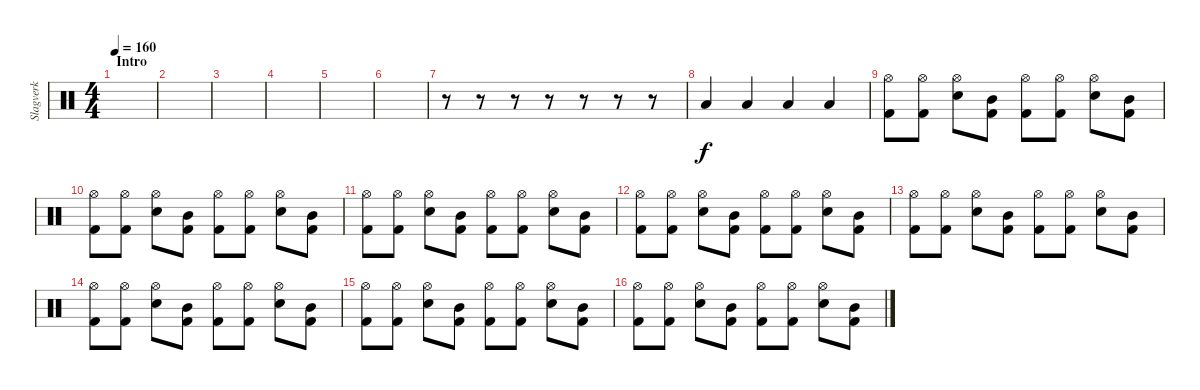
\track ("Slagverk" "Slagverk") {instrument percussion}
\staff {score}
\articulation defaults
\ts (4 4)
\section ("" "Intro")
\tempo 160
\clef neutral
\ks c
|
|
|
|
|
|
r.8 r.8 r.8 r.8 r.8 r.8 r.8 |
"Low Tom (hit)".4 "Low Tom (hit)".4 "Low Tom (hit)".4 "Low Tom (hit)".4 |
("Hi-Hat (open)" "Kick (hit) 2").8 ("Hi-Hat (open)" "Kick (hit) 2").8 ("Hi-Hat (open)" "Electric Snare (hit)").8 ("Mid Tom (hit)" "Kick (hit) 2").8 ("Hi-Hat (open)" "Kick (hit) 2").8 ("Hi-Hat (open)" "Kick (hit) 2").8 ("Hi-Hat (open)" "Electric Snare (hit)").8 ("Mid Tom (hit)" "Kick (hit) 2").8 |
("Hi-Hat (open)" "Kick (hit) 2").8 ("Hi-Hat (open)" "Kick (hit) 2").8 ("Hi-Hat (open)" "Electric Snare (hit)").8 ("Mid Tom (hit)" "Kick (hit) 2").8 ("Hi-Hat (open)" "Kick (hit) 2").8 ("Hi-Hat (open)" "Kick (hit) 2").8 ("Hi-Hat (open)" "Electric Snare (hit)").8 ("Mid Tom (hit)" "Kick (hit) 2").8 |
("Hi-Hat (open)" "Kick (hit) 2").8 ("Hi-Hat (open)" "Kick (hit) 2").8 ("Hi-Hat (open)" "Electric Snare (hit)").8 ("Mid Tom (hit)" "Kick (hit) 2").8 ("Hi-Hat (open)" "Kick (hit) 2").8 ("Hi-Hat (open)" "Kick (hit) 2").8 ("Hi-Hat (open)" "Electric Snare (hit)").8 ("Mid Tom (hit)" "Kick (hit) 2").8 |
("Hi-Hat (open)" "Kick (hit) 2").8 ("Hi-Hat (open)" "Kick (hit) 2").8 ("Hi-Hat (open)" "Electric Snare (hit)").8 ("Mid Tom (hit)" "Kick (hit) 2").8 ("Hi-Hat (open)" "Kick (hit) 2").8 ("Hi-Hat (open)" "Kick (hit) 2").8 ("Hi-Hat (open)" "Electric Snare (hit)").8 ("Mid Tom (hit)" "Kick (hit) 2").8 |
("Hi-Hat (open)" "Kick (hit) 2").8 ("Hi-Hat (open)" "Kick (hit) 2").8 ("Hi-Hat (open)" "Electric Snare (hit)").8 ("Mid Tom (hit)" "Kick (hit) 2").8 ("Hi-Hat (open)" "Kick (hit) 2").8 ("Hi-Hat (open)" "Kick (hit) 2").8 ("Hi-Hat (open)" "Electric Snare (hit)").8 ("Mid Tom (hit)" "Kick (hit) 2").8 |
("Hi-Hat (open)" "Kick (hit) 2").8 ("Hi-Hat (open)" "Kick (hit) 2").8 ("Hi-Hat (open)" "Electric Snare (hit)").8 ("Mid Tom (hit)" "Kick (hit) 2").8 ("Hi-Hat (open)" "Kick (hit) 2").8 ("Hi-Hat (open)" "Kick (hit) 2").8 ("Hi-Hat (open)" "Electric Snare (hit)").8 ("Mid Tom (hit)" "Kick (hit) 2").8 |
("Hi-Hat (open)" "Kick (hit) 2").8 ("Hi-Hat (open)" "Kick (hit) 2").8 ("Hi-Hat (open)" "Electric Snare (hit)").8 ("Mid Tom (hit)" "Kick (hit) 2").8 ("Hi-Hat (open)" "Kick (hit) 2").8 ("Hi-Hat (open)" "Kick (hit) 2").8 ("Hi-Hat (open)" "Electric Snare (hit)").8 ("Mid Tom (hit)" "Kick (hit) 2").8 |
("Hi-Hat (open)" "Kick (hit) 2").8 ("Hi-Hat (open)" "Kick (hit) 2").8 ("Hi-Hat (open)" "Electric Snare (hit)").8 ("Mid Tom (hit)" "Kick (hit) 2").8 ("Hi-Hat (open)" "Kick (hit) 2").8 ("Hi-Hat (open)" "Kick (hit) 2").8 ("Hi-Hat (open)" "Electric Snare (hit)").8 ("Mid Tom (hit)" "Kick (hit) 2").8
